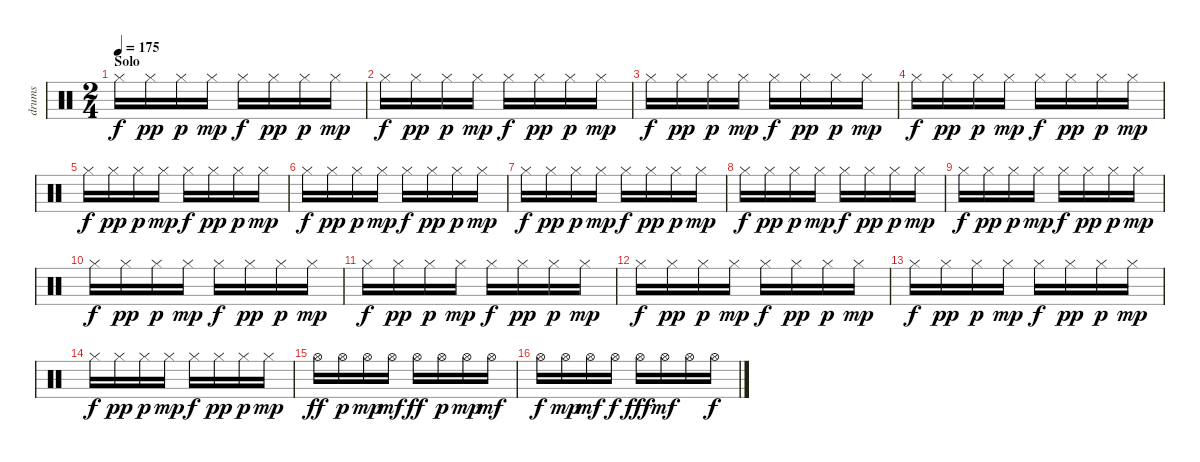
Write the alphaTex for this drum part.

\track ("drums" "drums") {instrument percussion}
\staff {score}
\articulation defaults
\ts (2 4)
\section ("" "Solo")
\tempo 175
\clef neutral
\ks c "Hi-Hat (closed)".16{dy f} "Hi-Hat (closed)".16{dy pp} "Hi-Hat (closed)".16{dy p} "Hi-Hat (closed)".16{dy mp} "Hi-Hat (closed)".16{dy f} "Hi-Hat (closed)".16{dy pp} "Hi-Hat (closed)".16{dy p} "Hi-Hat (closed)".16{dy mp}
|
"Hi-Hat (closed)".16{dy f} "Hi-Hat (closed)".16{dy pp} "Hi-Hat (closed)".16{dy p} "Hi-Hat (closed)".16{dy mp} "Hi-Hat (closed)".16{dy f} "Hi-Hat (closed)".16{dy pp} "Hi-Hat (closed)".16{dy p} "Hi-Hat (closed)".16{dy mp} |
"Hi-Hat (closed)".16{dy f} "Hi-Hat (closed)".16{dy pp} "Hi-Hat (closed)".16{dy p} "Hi-Hat (closed)".16{dy mp} "Hi-Hat (closed)".16{dy f} "Hi-Hat (closed)".16{dy pp} "Hi-Hat (closed)".16{dy p} "Hi-Hat (closed)".16{dy mp} |
"Hi-Hat (closed)".16{dy f} "Hi-Hat (closed)".16{dy pp} "Hi-Hat (closed)".16{dy p} "Hi-Hat (closed)".16{dy mp} "Hi-Hat (closed)".16{dy f} "Hi-Hat (closed)".16{dy pp} "Hi-Hat (closed)".16{dy p} "Hi-Hat (closed)".16{dy mp} |
"Hi-Hat (closed)".16{dy f} "Hi-Hat (closed)".16{dy pp} "Hi-Hat (closed)".16{dy p} "Hi-Hat (closed)".16{dy mp} "Hi-Hat (closed)".16{dy f} "Hi-Hat (closed)".16{dy pp} "Hi-Hat (closed)".16{dy p} "Hi-Hat (closed)".16{dy mp} |
"Hi-Hat (closed)".16{dy f} "Hi-Hat (closed)".16{dy pp} "Hi-Hat (closed)".16{dy p} "Hi-Hat (closed)".16{dy mp} "Hi-Hat (closed)".16{dy f} "Hi-Hat (closed)".16{dy pp} "Hi-Hat (closed)".16{dy p} "Hi-Hat (closed)".16{dy mp} |
"Hi-Hat (closed)".16{dy f} "Hi-Hat (closed)".16{dy pp} "Hi-Hat (closed)".16{dy p} "Hi-Hat (closed)".16{dy mp} "Hi-Hat (closed)".16{dy f} "Hi-Hat (closed)".16{dy pp} "Hi-Hat (closed)".16{dy p} "Hi-Hat (closed)".16{dy mp} |
"Hi-Hat (closed)".16{dy f} "Hi-Hat (closed)".16{dy pp} "Hi-Hat (closed)".16{dy p} "Hi-Hat (closed)".16{dy mp} "Hi-Hat (closed)".16{dy f} "Hi-Hat (closed)".16{dy pp} "Hi-Hat (closed)".16{dy p} "Hi-Hat (closed)".16{dy mp} |
"Hi-Hat (closed)".16{dy f} "Hi-Hat (closed)".16{dy pp} "Hi-Hat (closed)".16{dy p} "Hi-Hat (closed)".16{dy mp} "Hi-Hat (closed)".16{dy f} "Hi-Hat (closed)".16{dy pp} "Hi-Hat (closed)".16{dy p} "Hi-Hat (closed)".16{dy mp} |
"Hi-Hat (closed)".16{dy f} "Hi-Hat (closed)".16{dy pp} "Hi-Hat (closed)".16{dy p} "Hi-Hat (closed)".16{dy mp} "Hi-Hat (closed)".16{dy f} "Hi-Hat (closed)".16{dy pp} "Hi-Hat (closed)".16{dy p} "Hi-Hat (closed)".16{dy mp} |
"Hi-Hat (closed)".16{dy f} "Hi-Hat (closed)".16{dy pp} "Hi-Hat (closed)".16{dy p} "Hi-Hat (closed)".16{dy mp} "Hi-Hat (closed)".16{dy f} "Hi-Hat (closed)".16{dy pp} "Hi-Hat (closed)".16{dy p} "Hi-Hat (closed)".16{dy mp} |
"Hi-Hat (closed)".16{dy f} "Hi-Hat (closed)".16{dy pp} "Hi-Hat (closed)".16{dy p} "Hi-Hat (closed)".16{dy mp} "Hi-Hat (closed)".16{dy f} "Hi-Hat (closed)".16{dy pp} "Hi-Hat (closed)".16{dy p} "Hi-Hat (closed)".16{dy mp} |
"Hi-Hat (closed)".16{dy f} "Hi-Hat (closed)".16{dy pp} "Hi-Hat (closed)".16{dy p} "Hi-Hat (closed)".16{dy mp} "Hi-Hat (closed)".16{dy f} "Hi-Hat (closed)".16{dy pp} "Hi-Hat (closed)".16{dy p} "Hi-Hat (closed)".16{dy mp} |
"Hi-Hat (closed)".16{dy f} "Hi-Hat (closed)".16{dy pp} "Hi-Hat (closed)".16{dy p} "Hi-Hat (closed)".16{dy mp} "Hi-Hat (closed)".16{dy f} "Hi-Hat (closed)".16{dy pp} "Hi-Hat (closed)".16{dy p} "Hi-Hat (closed)".16{dy mp} |
"Hi-Hat (open)".16{dy ff} "Hi-Hat (open)".16{dy p} "Hi-Hat (open)".16{dy mp} "Hi-Hat (open)".16{dy mf} "Hi-Hat (open)".16{dy ff} "Hi-Hat (open)".16{dy p} "Hi-Hat (open)".16{dy mp} "Hi-Hat (open)".16{dy mf} |
"Hi-Hat (open)".16{dy f} "Hi-Hat (open)".16{dy mp} "Hi-Hat (open)".16{dy mf} "Hi-Hat (open)".16{dy f} "Hi-Hat (open)".16{dy fff} "Hi-Hat (open)".16{dy mf} "Hi-Hat (open)".16 "Hi-Hat (open)".16{dy f}
